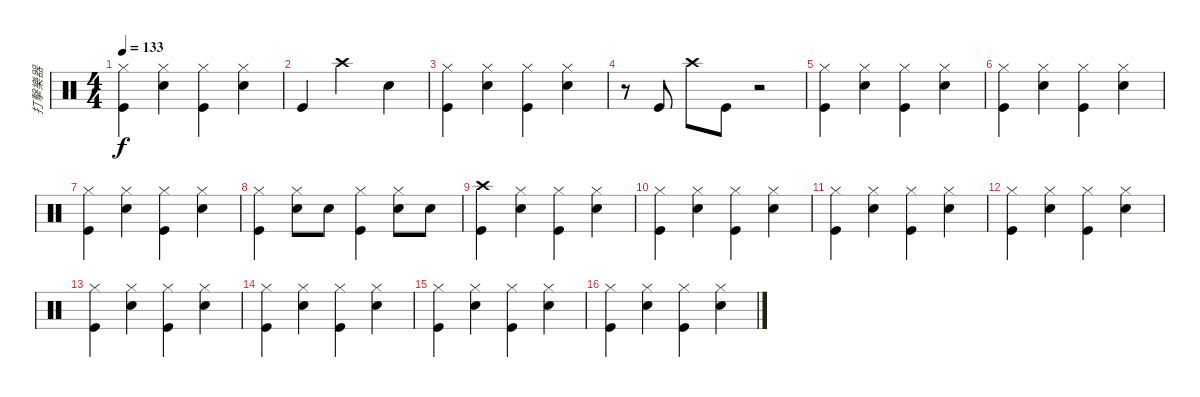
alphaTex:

\track ("打擊樂器" "打擊樂器") {instrument percussion}
\staff {score}
\articulation defaults
\ts (4 4)
\tempo 133
\clef neutral
\ks c
("Hi-Hat (closed)" "Kick (hit)").4{dy f} ("Hi-Hat (closed)" "Snare (hit) 2").4 ("Hi-Hat (closed)" "Kick (hit)").4 ("Hi-Hat (closed)" "Snare (hit) 2").4 |
"Kick (hit)".4 "Crash high (hit)".2 "Snare (hit) 2".4 |
("Hi-Hat (closed)" "Kick (hit)").4 ("Hi-Hat (closed)" "Snare (hit) 2").4 ("Hi-Hat (closed)" "Kick (hit)").4 ("Hi-Hat (closed)" "Snare (hit) 2").4 |
r.8 "Kick (hit)".8 "Crash high (hit)".8 "Kick (hit)".8 r.2 |
("Hi-Hat (closed)" "Kick (hit)").4 ("Hi-Hat (closed)" "Snare (hit) 2").4 ("Hi-Hat (closed)" "Kick (hit)").4 ("Hi-Hat (closed)" "Snare (hit) 2").4 |
("Hi-Hat (closed)" "Kick (hit)").4 ("Hi-Hat (closed)" "Snare (hit) 2").4 ("Hi-Hat (closed)" "Kick (hit)").4 ("Hi-Hat (closed)" "Snare (hit) 2").4 |
("Hi-Hat (closed)" "Kick (hit)").4 ("Hi-Hat (closed)" "Snare (hit) 2").4 ("Hi-Hat (closed)" "Kick (hit)").4 ("Hi-Hat (closed)" "Snare (hit) 2").4 |
("Hi-Hat (closed)" "Kick (hit)").4 ("Hi-Hat (closed)" "Snare (hit) 2").8 "Snare (hit) 2".8 ("Hi-Hat (closed)" "Kick (hit)").4 ("Hi-Hat (closed)" "Snare (hit) 2").8 "Snare (hit) 2".8 |
("Crash high (hit)" "Kick (hit)").4 ("Hi-Hat (closed)" "Snare (hit) 2").4 ("Hi-Hat (closed)" "Kick (hit)").4 ("Hi-Hat (closed)" "Snare (hit) 2").4 |
("Hi-Hat (closed)" "Kick (hit)").4 ("Hi-Hat (closed)" "Snare (hit) 2").4 ("Hi-Hat (closed)" "Kick (hit)").4 ("Hi-Hat (closed)" "Snare (hit) 2").4 |
("Hi-Hat (closed)" "Kick (hit)").4 ("Hi-Hat (closed)" "Snare (hit) 2").4 ("Hi-Hat (closed)" "Kick (hit)").4 ("Hi-Hat (closed)" "Snare (hit) 2").4 |
("Hi-Hat (closed)" "Kick (hit)").4 ("Hi-Hat (closed)" "Snare (hit) 2").4 ("Hi-Hat (closed)" "Kick (hit)").4 ("Hi-Hat (closed)" "Snare (hit) 2").4 |
("Hi-Hat (closed)" "Kick (hit)").4 ("Hi-Hat (closed)" "Snare (hit) 2").4 ("Hi-Hat (closed)" "Kick (hit)").4 ("Hi-Hat (closed)" "Snare (hit) 2").4 |
("Hi-Hat (closed)" "Kick (hit)").4 ("Hi-Hat (closed)" "Snare (hit) 2").4 ("Hi-Hat (closed)" "Kick (hit)").4 ("Hi-Hat (closed)" "Snare (hit) 2").4 |
("Hi-Hat (closed)" "Kick (hit)").4 ("Hi-Hat (closed)" "Snare (hit) 2").4 ("Hi-Hat (closed)" "Kick (hit)").4 ("Hi-Hat (closed)" "Snare (hit) 2").4 |
("Hi-Hat (closed)" "Kick (hit)").4 ("Hi-Hat (closed)" "Snare (hit) 2").4 ("Hi-Hat (closed)" "Kick (hit)").4 ("Hi-Hat (closed)" "Snare (hit) 2").4
